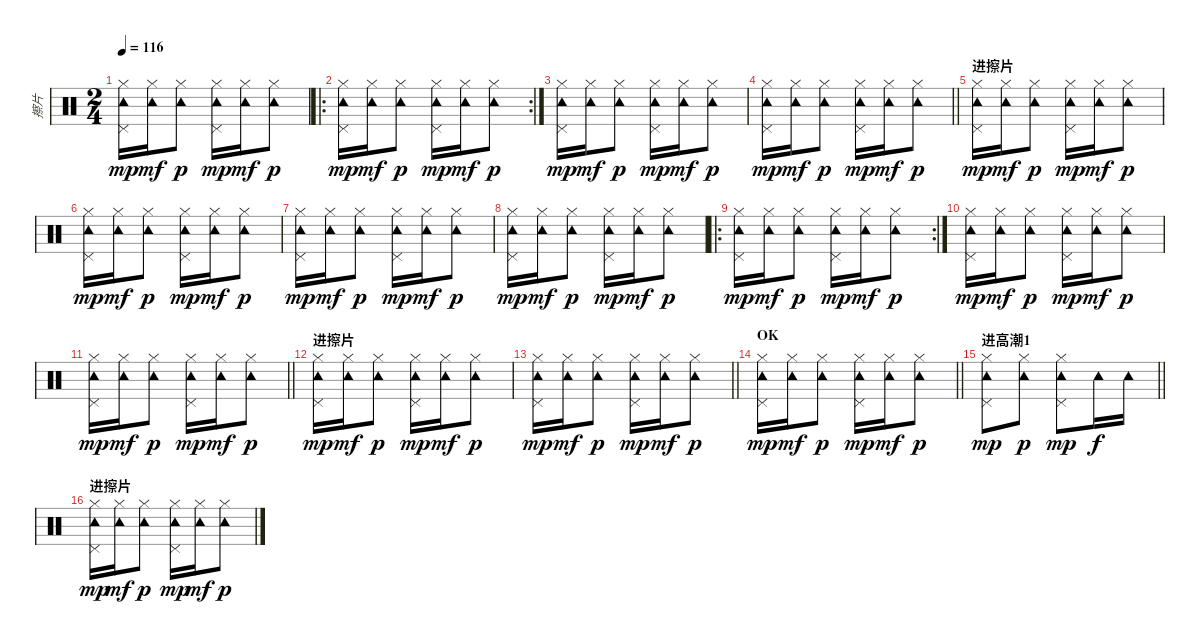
\track ("擦片" "擦片") {instrument percussion}
\staff {score}
\articulation defaults
\ts (2 4)
\tempo 116
\clef neutral
\ks c
("Hi-Hat (closed)" "Tambourine (hit)" "Pedal Hi-Hat (hit)").16{dy mp} ("Hi-Hat (closed)" "Tambourine (hit)").16{dy mf} ("Hi-Hat (closed)" "Tambourine (hit)").8{dy p} ("Hi-Hat (closed)" "Tambourine (hit)" "Pedal Hi-Hat (hit)").16{dy mp} ("Hi-Hat (closed)" "Tambourine (hit)").16{dy mf} ("Hi-Hat (closed)" "Tambourine (hit)").8{dy p} |
\ro
\rc 2
("Hi-Hat (closed)" "Tambourine (hit)" "Pedal Hi-Hat (hit)").16{dy mp} ("Hi-Hat (closed)" "Tambourine (hit)").16{dy mf} ("Hi-Hat (closed)" "Tambourine (hit)").8{dy p} ("Hi-Hat (closed)" "Tambourine (hit)" "Pedal Hi-Hat (hit)").16{dy mp} ("Hi-Hat (closed)" "Tambourine (hit)").16{dy mf} ("Hi-Hat (closed)" "Tambourine (hit)").8{dy p} |
("Hi-Hat (closed)" "Tambourine (hit)" "Pedal Hi-Hat (hit)").16{dy mp} ("Hi-Hat (closed)" "Tambourine (hit)").16{dy mf} ("Hi-Hat (closed)" "Tambourine (hit)").8{dy p} ("Hi-Hat (closed)" "Tambourine (hit)" "Pedal Hi-Hat (hit)").16{dy mp} ("Hi-Hat (closed)" "Tambourine (hit)").16{dy mf} ("Hi-Hat (closed)" "Tambourine (hit)").8{dy p} |
\barLineRight lightlight
("Hi-Hat (closed)" "Tambourine (hit)" "Pedal Hi-Hat (hit)").16{dy mp} ("Hi-Hat (closed)" "Tambourine (hit)").16{dy mf} ("Hi-Hat (closed)" "Tambourine (hit)").8{dy p} ("Hi-Hat (closed)" "Tambourine (hit)" "Pedal Hi-Hat (hit)").16{dy mp} ("Hi-Hat (closed)" "Tambourine (hit)").16{dy mf} ("Hi-Hat (closed)" "Tambourine (hit)").8{dy p} |
\section ("" "进擦片")
("Hi-Hat (closed)" "Tambourine (hit)" "Pedal Hi-Hat (hit)").16{dy mp} ("Hi-Hat (closed)" "Tambourine (hit)").16{dy mf} ("Hi-Hat (closed)" "Tambourine (hit)").8{dy p} ("Hi-Hat (closed)" "Tambourine (hit)" "Pedal Hi-Hat (hit)").16{dy mp} ("Hi-Hat (closed)" "Tambourine (hit)").16{dy mf} ("Hi-Hat (closed)" "Tambourine (hit)").8{dy p} |
("Hi-Hat (closed)" "Tambourine (hit)" "Pedal Hi-Hat (hit)").16{dy mp} ("Hi-Hat (closed)" "Tambourine (hit)").16{dy mf} ("Hi-Hat (closed)" "Tambourine (hit)").8{dy p} ("Hi-Hat (closed)" "Tambourine (hit)" "Pedal Hi-Hat (hit)").16{dy mp} ("Hi-Hat (closed)" "Tambourine (hit)").16{dy mf} ("Hi-Hat (closed)" "Tambourine (hit)").8{dy p} |
("Hi-Hat (closed)" "Tambourine (hit)" "Pedal Hi-Hat (hit)").16{dy mp} ("Hi-Hat (closed)" "Tambourine (hit)").16{dy mf} ("Hi-Hat (closed)" "Tambourine (hit)").8{dy p} ("Hi-Hat (closed)" "Tambourine (hit)" "Pedal Hi-Hat (hit)").16{dy mp} ("Hi-Hat (closed)" "Tambourine (hit)").16{dy mf} ("Hi-Hat (closed)" "Tambourine (hit)").8{dy p} |
("Hi-Hat (closed)" "Tambourine (hit)" "Pedal Hi-Hat (hit)").16{dy mp} ("Hi-Hat (closed)" "Tambourine (hit)").16{dy mf} ("Hi-Hat (closed)" "Tambourine (hit)").8{dy p} ("Hi-Hat (closed)" "Tambourine (hit)" "Pedal Hi-Hat (hit)").16{dy mp} ("Hi-Hat (closed)" "Tambourine (hit)").16{dy mf} ("Hi-Hat (closed)" "Tambourine (hit)").8{dy p} |
\ro
\rc 2
("Hi-Hat (closed)" "Tambourine (hit)" "Pedal Hi-Hat (hit)").16{dy mp} ("Hi-Hat (closed)" "Tambourine (hit)").16{dy mf} ("Hi-Hat (closed)" "Tambourine (hit)").8{dy p} ("Hi-Hat (closed)" "Tambourine (hit)" "Pedal Hi-Hat (hit)").16{dy mp} ("Hi-Hat (closed)" "Tambourine (hit)").16{dy mf} ("Hi-Hat (closed)" "Tambourine (hit)").8{dy p} |
("Hi-Hat (closed)" "Tambourine (hit)" "Pedal Hi-Hat (hit)").16{dy mp} ("Hi-Hat (closed)" "Tambourine (hit)").16{dy mf} ("Hi-Hat (closed)" "Tambourine (hit)").8{dy p} ("Hi-Hat (closed)" "Tambourine (hit)" "Pedal Hi-Hat (hit)").16{dy mp} ("Hi-Hat (closed)" "Tambourine (hit)").16{dy mf} ("Hi-Hat (closed)" "Tambourine (hit)").8{dy p} |
\barLineRight lightlight
("Hi-Hat (closed)" "Tambourine (hit)" "Pedal Hi-Hat (hit)").16{dy mp} ("Hi-Hat (closed)" "Tambourine (hit)").16{dy mf} ("Hi-Hat (closed)" "Tambourine (hit)").8{dy p} ("Hi-Hat (closed)" "Tambourine (hit)" "Pedal Hi-Hat (hit)").16{dy mp} ("Hi-Hat (closed)" "Tambourine (hit)").16{dy mf} ("Hi-Hat (closed)" "Tambourine (hit)").8{dy p} |
\section ("" "进擦片")
("Hi-Hat (closed)" "Tambourine (hit)" "Pedal Hi-Hat (hit)").16{dy mp} ("Hi-Hat (closed)" "Tambourine (hit)").16{dy mf} ("Hi-Hat (closed)" "Tambourine (hit)").8{dy p} ("Hi-Hat (closed)" "Tambourine (hit)" "Pedal Hi-Hat (hit)").16{dy mp} ("Hi-Hat (closed)" "Tambourine (hit)").16{dy mf} ("Hi-Hat (closed)" "Tambourine (hit)").8{dy p} |
\barLineRight lightlight
("Hi-Hat (closed)" "Tambourine (hit)" "Pedal Hi-Hat (hit)").16{dy mp} ("Hi-Hat (closed)" "Tambourine (hit)").16{dy mf} ("Hi-Hat (closed)" "Tambourine (hit)").8{dy p} ("Hi-Hat (closed)" "Tambourine (hit)" "Pedal Hi-Hat (hit)").16{dy mp} ("Hi-Hat (closed)" "Tambourine (hit)").16{dy mf} ("Hi-Hat (closed)" "Tambourine (hit)").8{dy p} |
\section ("" "OK")
\barLineRight lightlight
("Hi-Hat (closed)" "Tambourine (hit)" "Pedal Hi-Hat (hit)").16{dy mp} ("Hi-Hat (closed)" "Tambourine (hit)").16{dy mf} ("Hi-Hat (closed)" "Tambourine (hit)").8{dy p} ("Hi-Hat (closed)" "Tambourine (hit)" "Pedal Hi-Hat (hit)").16{dy mp} ("Hi-Hat (closed)" "Tambourine (hit)").16{dy mf} ("Hi-Hat (closed)" "Tambourine (hit)").8{dy p} |
\section ("" "进高潮1")
\barLineRight lightlight
("Hi-Hat (closed)" "Tambourine (hit)" "Pedal Hi-Hat (hit)").8{dy mp} ("Hi-Hat (closed)" "Tambourine (hit)").8{dy p} ("Hi-Hat (closed)" "Tambourine (hit)" "Pedal Hi-Hat (hit)").8{dy mp} "Tambourine (hit)".16{dy f} "Tambourine (hit)".16 |
\section ("" "进擦片")
("Hi-Hat (closed)" "Tambourine (hit)" "Pedal Hi-Hat (hit)").16{dy mp} ("Hi-Hat (closed)" "Tambourine (hit)").16{dy mf} ("Hi-Hat (closed)" "Tambourine (hit)").8{dy p} ("Hi-Hat (closed)" "Tambourine (hit)" "Pedal Hi-Hat (hit)").16{dy mp} ("Hi-Hat (closed)" "Tambourine (hit)").16{dy mf} ("Hi-Hat (closed)" "Tambourine (hit)").8{dy p}
